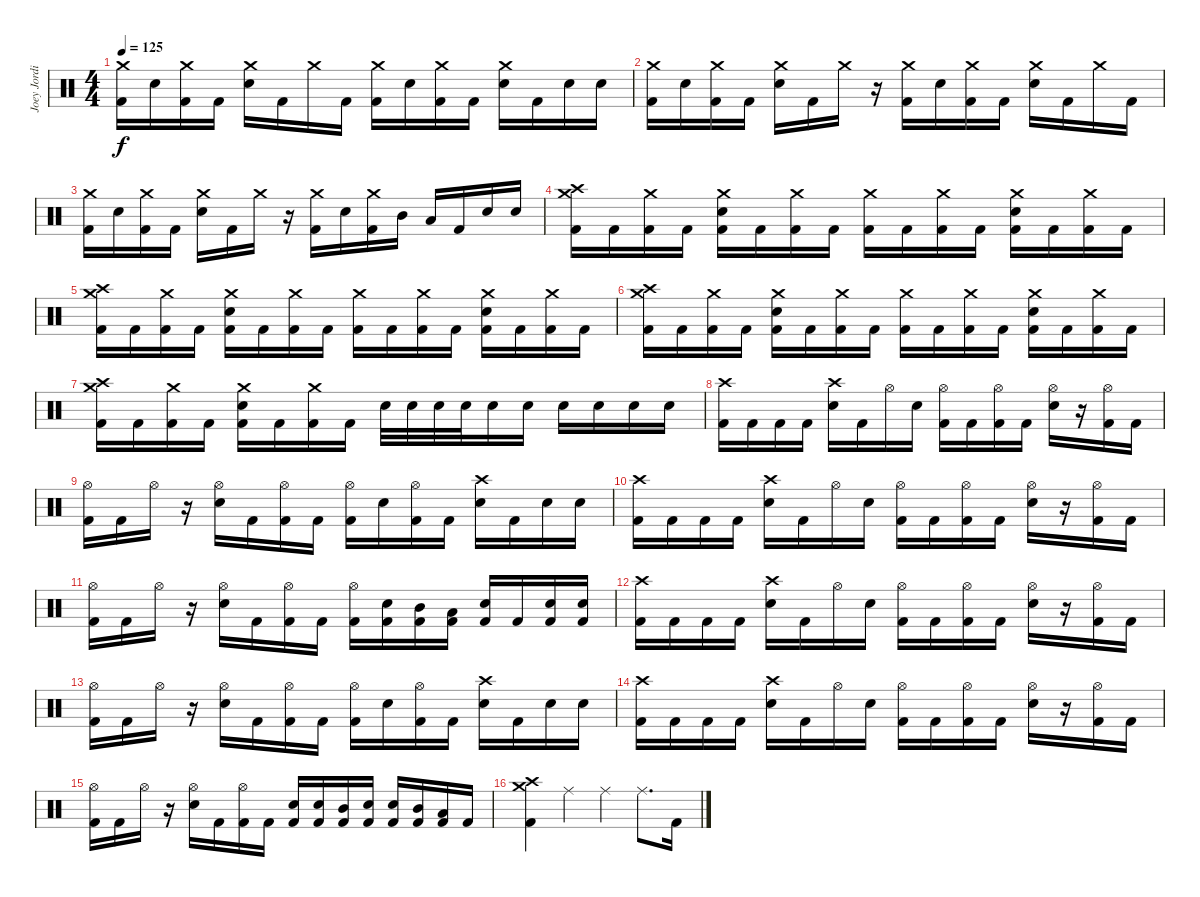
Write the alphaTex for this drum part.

\track ("Joey Jordison" "Joey Jordi") {instrument percussion}
\staff {score}
\articulation defaults
\ts (4 4)
\tempo 125
\clef neutral
\ks c
("Crash medium (hit)" "Kick (hit) 2").16{dy f} "Snare (hit) 2".16 ("Crash medium (hit)" "Kick (hit) 2").16 "Kick (hit) 2".16 ("Crash medium (hit)" "Snare (hit) 2").16 "Kick (hit) 2".16 "Crash medium (hit)".16 "Kick (hit) 2".16 ("Crash medium (hit)" "Kick (hit) 2").16 "Snare (hit) 2".16 ("Crash medium (hit)" "Kick (hit) 2").16 "Kick (hit) 2".16 ("Crash medium (hit)" "Snare (hit) 2").16 "Kick (hit) 2".16 "Snare (hit) 2".16 "Snare (hit) 2".16 |
("Crash medium (hit)" "Kick (hit) 2").16 "Snare (hit) 2".16 ("Crash medium (hit)" "Kick (hit) 2").16 "Kick (hit) 2".16 ("Crash medium (hit)" "Snare (hit) 2").16 "Kick (hit) 2".16 "Crash medium (hit)".16 r.16 ("Crash medium (hit)" "Kick (hit) 2").16 "Snare (hit) 2".16 ("Crash medium (hit)" "Kick (hit) 2").16 "Kick (hit) 2".16 ("Crash medium (hit)" "Snare (hit) 2").16 "Kick (hit) 2".16 "Crash medium (hit)".16 "Kick (hit) 2".16 |
("Crash medium (hit)" "Kick (hit) 2").16 "Snare (hit) 2".16 ("Crash medium (hit)" "Kick (hit) 2").16 "Kick (hit) 2".16 ("Crash medium (hit)" "Snare (hit) 2").16 "Kick (hit) 2".16 "Crash medium (hit)".16 r.16 ("Crash medium (hit)" "Kick (hit) 2").16 "Snare (hit) 2".16 ("Crash medium (hit)" "Kick (hit) 2").16 "Mid Tom (hit)".16 "Low Tom (hit)".16 "Kick (hit) 2".16 "Snare (hit) 2".16 "Snare (hit) 2".16 |
("Crash medium (hit)" "Crash high (hit)" "Kick (hit) 2").16 "Kick (hit) 2".16 ("Crash medium (hit)" "Kick (hit) 2").16 "Kick (hit) 2".16 ("Crash medium (hit)" "Snare (hit) 2" "Kick (hit) 2").16 "Kick (hit) 2".16 ("Crash medium (hit)" "Kick (hit) 2").16 "Kick (hit) 2".16 ("Crash medium (hit)" "Kick (hit) 2").16 "Kick (hit) 2".16 ("Crash medium (hit)" "Kick (hit) 2").16 "Kick (hit) 2".16 ("Crash medium (hit)" "Snare (hit) 2" "Kick (hit) 2").16 "Kick (hit) 2".16 ("Crash medium (hit)" "Kick (hit) 2").16 "Kick (hit) 2".16 |
("Crash medium (hit)" "Crash high (hit)" "Kick (hit) 2").16 "Kick (hit) 2".16 ("Crash medium (hit)" "Kick (hit) 2").16 "Kick (hit) 2".16 ("Crash medium (hit)" "Snare (hit) 2" "Kick (hit) 2").16 "Kick (hit) 2".16 ("Crash medium (hit)" "Kick (hit) 2").16 "Kick (hit) 2".16 ("Crash medium (hit)" "Kick (hit) 2").16 "Kick (hit) 2".16 ("Crash medium (hit)" "Kick (hit) 2").16 "Kick (hit) 2".16 ("Crash medium (hit)" "Snare (hit) 2" "Kick (hit) 2").16 "Kick (hit) 2".16 ("Crash medium (hit)" "Kick (hit) 2").16 "Kick (hit) 2".16 |
("Crash medium (hit)" "Crash high (hit)" "Kick (hit) 2").16 "Kick (hit) 2".16 ("Crash medium (hit)" "Kick (hit) 2").16 "Kick (hit) 2".16 ("Crash medium (hit)" "Snare (hit) 2" "Kick (hit) 2").16 "Kick (hit) 2".16 ("Crash medium (hit)" "Kick (hit) 2").16 "Kick (hit) 2".16 ("Crash medium (hit)" "Kick (hit) 2").16 "Kick (hit) 2".16 ("Crash medium (hit)" "Kick (hit) 2").16 "Kick (hit) 2".16 ("Crash medium (hit)" "Snare (hit) 2" "Kick (hit) 2").16 "Kick (hit) 2".16 ("Crash medium (hit)" "Kick (hit) 2").16 "Kick (hit) 2".16 |
("Crash medium (hit)" "Crash high (hit)" "Kick (hit) 2").16 "Kick (hit) 2".16 ("Crash medium (hit)" "Kick (hit) 2").16 "Kick (hit) 2".16 ("Crash medium (hit)" "Snare (hit) 2" "Kick (hit) 2").16 "Kick (hit) 2".16 ("Crash medium (hit)" "Kick (hit) 2").16 "Kick (hit) 2".16 "Snare (hit) 2".32 "Snare (hit) 2".32 "Snare (hit) 2".32 "Snare (hit) 2".32 "Snare (hit) 2".16 "Snare (hit) 2".16 "Snare (hit) 2".16 "Snare (hit) 2".16 "Snare (hit) 2".16 "Snare (hit) 2".16 |
("Crash high (hit)" "Kick (hit) 2").16 "Kick (hit) 2".16 "Kick (hit) 2".16 "Kick (hit) 2".16 ("Crash high (hit)" "Snare (hit) 2").16 "Kick (hit) 2".16 "Hi-Hat (open)".16 "Snare (hit) 2".16 ("Hi-Hat (open)" "Kick (hit) 2").16 "Kick (hit) 2".16 ("Hi-Hat (open)" "Kick (hit) 2").16 "Kick (hit) 2".16 ("Hi-Hat (open)" "Snare (hit) 2").16 r.16 ("Hi-Hat (open)" "Kick (hit) 2").16 "Kick (hit) 2".16 |
("Hi-Hat (open)" "Kick (hit) 2").16 "Kick (hit) 2".16 "Hi-Hat (open)".16 r.16 ("Hi-Hat (open)" "Snare (hit) 2").16 "Kick (hit) 2".16 ("Hi-Hat (open)" "Kick (hit) 2").16 "Kick (hit) 2".16 ("Hi-Hat (open)" "Kick (hit) 2").16 "Snare (hit) 2".16 ("Hi-Hat (open)" "Kick (hit) 2").16 "Kick (hit) 2".16 ("Crash high (hit)" "Snare (hit) 2").16 "Kick (hit) 2".16 "Snare (hit) 2".16 "Snare (hit) 2".16 |
("Crash high (hit)" "Kick (hit) 2").16 "Kick (hit) 2".16 "Kick (hit) 2".16 "Kick (hit) 2".16 ("Crash high (hit)" "Snare (hit) 2").16 "Kick (hit) 2".16 "Hi-Hat (open)".16 "Snare (hit) 2".16 ("Hi-Hat (open)" "Kick (hit) 2").16 "Kick (hit) 2".16 ("Hi-Hat (open)" "Kick (hit) 2").16 "Kick (hit) 2".16 ("Hi-Hat (open)" "Snare (hit) 2").16 r.16 ("Hi-Hat (open)" "Kick (hit) 2").16 "Kick (hit) 2".16 |
("Hi-Hat (open)" "Kick (hit) 2").16 "Kick (hit) 2".16 "Hi-Hat (open)".16 r.16 ("Hi-Hat (open)" "Snare (hit) 2").16 "Kick (hit) 2".16 ("Hi-Hat (open)" "Kick (hit) 2").16 "Kick (hit) 2".16 ("Hi-Hat (open)" "Kick (hit) 2").16 ("Snare (hit) 2" "Kick (hit) 2").16 ("Mid Tom (hit)" "Kick (hit) 2").16 ("Low Tom (hit)" "Kick (hit) 2").16 ("Snare (hit) 2" "Kick (hit) 2").16 "Kick (hit) 2".16 ("Snare (hit) 2" "Kick (hit) 2").16 ("Snare (hit) 2" "Kick (hit) 2").16 |
("Crash high (hit)" "Kick (hit) 2").16 "Kick (hit) 2".16 "Kick (hit) 2".16 "Kick (hit) 2".16 ("Crash high (hit)" "Snare (hit) 2").16 "Kick (hit) 2".16 "Hi-Hat (open)".16 "Snare (hit) 2".16 ("Hi-Hat (open)" "Kick (hit) 2").16 "Kick (hit) 2".16 ("Hi-Hat (open)" "Kick (hit) 2").16 "Kick (hit) 2".16 ("Hi-Hat (open)" "Snare (hit) 2").16 r.16 ("Hi-Hat (open)" "Kick (hit) 2").16 "Kick (hit) 2".16 |
("Hi-Hat (open)" "Kick (hit) 2").16 "Kick (hit) 2".16 "Hi-Hat (open)".16 r.16 ("Hi-Hat (open)" "Snare (hit) 2").16 "Kick (hit) 2".16 ("Hi-Hat (open)" "Kick (hit) 2").16 "Kick (hit) 2".16 ("Hi-Hat (open)" "Kick (hit) 2").16 "Snare (hit) 2".16 ("Hi-Hat (open)" "Kick (hit) 2").16 "Kick (hit) 2".16 ("Crash high (hit)" "Snare (hit) 2").16 "Kick (hit) 2".16 "Snare (hit) 2".16 "Snare (hit) 2".16 |
("Crash high (hit)" "Kick (hit) 2").16 "Kick (hit) 2".16 "Kick (hit) 2".16 "Kick (hit) 2".16 ("Crash high (hit)" "Snare (hit) 2").16 "Kick (hit) 2".16 "Hi-Hat (open)".16 "Snare (hit) 2".16 ("Hi-Hat (open)" "Kick (hit) 2").16 "Kick (hit) 2".16 ("Hi-Hat (open)" "Kick (hit) 2").16 "Kick (hit) 2".16 ("Hi-Hat (open)" "Snare (hit) 2").16 r.16 ("Hi-Hat (open)" "Kick (hit) 2").16 "Kick (hit) 2".16 |
("Hi-Hat (open)" "Kick (hit) 2").16 "Kick (hit) 2".16 "Hi-Hat (open)".16 r.16 ("Hi-Hat (open)" "Snare (hit) 2").16 "Kick (hit) 2".16 ("Hi-Hat (open)" "Kick (hit) 2").16 "Kick (hit) 2".16 ("Snare (hit) 2" "Kick (hit) 2").16 ("Snare (hit) 2" "Kick (hit) 2").16 ("Mid Tom (hit)" "Kick (hit) 2").16 ("Snare (hit) 2" "Kick (hit) 2").16 ("Snare (hit) 2" "Kick (hit) 2").16 ("Mid Tom (hit)" "Kick (hit) 2").16 ("Low Tom (hit)" "Kick (hit) 2").16 "Kick (hit) 2".16 |
("Crash high (hit)" "Crash medium (hit)" "Kick (hit) 2").4 "Ride (middle)".4 "Ride (middle)".4 "Ride (middle)".8{d} "Kick (hit) 2".16
